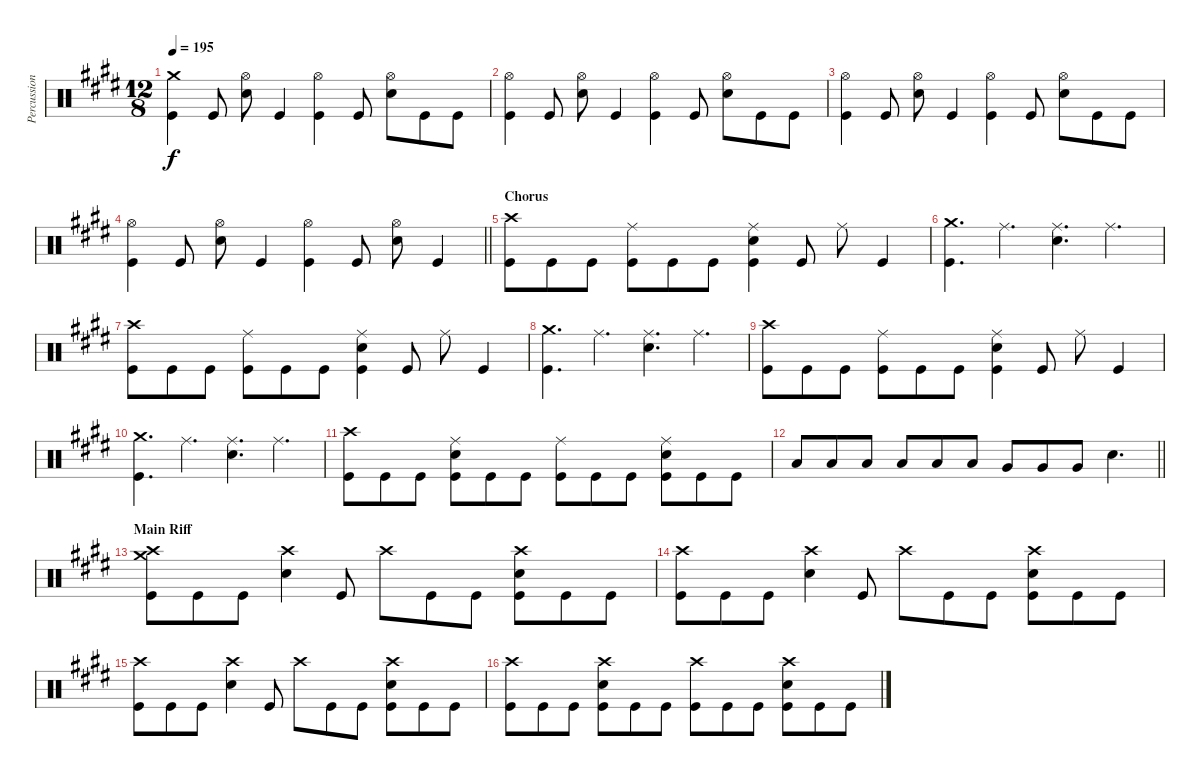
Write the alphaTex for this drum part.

\track ("Percussion" "Percussion") {instrument percussion}
\staff {score}
\articulation defaults
\ts (12 8)
\tempo 195
\clef neutral
\ks e
("Crash medium (hit)" "Kick (hit)").4{dy f} "Kick (hit)".8 ("Hi-Hat (open)" "Electric Snare (hit)").8 "Kick (hit)".4 ("Hi-Hat (open)" "Kick (hit)").4 "Kick (hit)".8 ("Hi-Hat (open)" "Electric Snare (hit)").8 "Kick (hit)".8 "Kick (hit)".8 |
("Hi-Hat (open)" "Kick (hit)").4 "Kick (hit)".8 ("Hi-Hat (open)" "Electric Snare (hit)").8 "Kick (hit)".4 ("Hi-Hat (open)" "Kick (hit)").4 "Kick (hit)".8 ("Hi-Hat (open)" "Electric Snare (hit)").8 "Kick (hit)".8 "Kick (hit)".8 |
("Hi-Hat (open)" "Kick (hit)").4 "Kick (hit)".8 ("Hi-Hat (open)" "Electric Snare (hit)").8 "Kick (hit)".4 ("Hi-Hat (open)" "Kick (hit)").4 "Kick (hit)".8 ("Hi-Hat (open)" "Electric Snare (hit)").8 "Kick (hit)".8 "Kick (hit)".8 |
\barLineRight lightlight
("Hi-Hat (open)" "Kick (hit)").4 "Kick (hit)".8 ("Hi-Hat (open)" "Electric Snare (hit)").8 "Kick (hit)".4 ("Hi-Hat (open)" "Kick (hit)").4 "Kick (hit)".8 ("Hi-Hat (open)" "Electric Snare (hit)").8 "Kick (hit)".4 |
\section ("" "Chorus")
("Crash high (hit)" "Kick (hit)").8 "Kick (hit)".8 "Kick (hit)".8 ("Ride (middle)" "Kick (hit)").8 "Kick (hit)".8 "Kick (hit)".8 ("Ride (middle)" "Electric Snare (hit)" "Kick (hit)").4 "Kick (hit)".8 "Ride (middle)".8 "Kick (hit)".4 |
("Crash medium (hit)" "Kick (hit)").4{d} "Ride (middle)".4{d} ("Ride (middle)" "Electric Snare (hit)").4{d} "Ride (middle)".4{d} |
("Crash high (hit)" "Kick (hit)").8 "Kick (hit)".8 "Kick (hit)".8 ("Ride (middle)" "Kick (hit)").8 "Kick (hit)".8 "Kick (hit)".8 ("Ride (middle)" "Electric Snare (hit)" "Kick (hit)").4 "Kick (hit)".8 "Ride (middle)".8 "Kick (hit)".4 |
("Crash medium (hit)" "Kick (hit)").4{d} "Ride (middle)".4{d} ("Ride (middle)" "Electric Snare (hit)").4{d} "Ride (middle)".4{d} |
("Crash high (hit)" "Kick (hit)").8 "Kick (hit)".8 "Kick (hit)".8 ("Ride (middle)" "Kick (hit)").8 "Kick (hit)".8 "Kick (hit)".8 ("Ride (middle)" "Electric Snare (hit)" "Kick (hit)").4 "Kick (hit)".8 "Ride (middle)".8 "Kick (hit)".4 |
("Crash medium (hit)" "Kick (hit)").4{d} "Ride (middle)".4{d} ("Ride (middle)" "Electric Snare (hit)").4{d} "Ride (middle)".4{d} |
("Crash high (hit)" "Kick (hit)").8 "Kick (hit)".8 "Kick (hit)".8 ("Ride (middle)" "Electric Snare (hit)" "Kick (hit)").8 "Kick (hit)".8 "Kick (hit)".8 ("Ride (middle)" "Kick (hit)").8 "Kick (hit)".8 "Kick (hit)".8 ("Ride (middle)" "Electric Snare (hit)" "Kick (hit)").8 "Kick (hit)".8 "Kick (hit)".8 |
\barLineRight lightlight "Low Tom (hit)".8 "Low Tom (hit)".8 "Low Tom (hit)".8 "Low Tom (hit)".8 "Low Tom (hit)".8 "Low Tom (hit)".8 "Very Low Tom (hit)".8 "Very Low Tom (hit)".8 "Very Low Tom (hit)".8 "Electric Snare (hit)".4{d}
|
\section ("" "Main Riff")
("Crash high (hit)" "Crash medium (hit)" "Kick (hit)").8 "Kick (hit)".8 "Kick (hit)".8 ("Crash high (hit)" "Electric Snare (hit)").4 "Kick (hit)".8 "Crash high (hit)".8 "Kick (hit)".8 "Kick (hit)".8 ("Crash high (hit)" "Electric Snare (hit)" "Kick (hit)").8 "Kick (hit)".8 "Kick (hit)".8 |
("Crash high (hit)" "Kick (hit)").8 "Kick (hit)".8 "Kick (hit)".8 ("Crash high (hit)" "Electric Snare (hit)").4 "Kick (hit)".8 "Crash high (hit)".8 "Kick (hit)".8 "Kick (hit)".8 ("Crash high (hit)" "Electric Snare (hit)" "Kick (hit)").8 "Kick (hit)".8 "Kick (hit)".8 |
("Crash high (hit)" "Kick (hit)").8 "Kick (hit)".8 "Kick (hit)".8 ("Crash high (hit)" "Electric Snare (hit)").4 "Kick (hit)".8 "Crash high (hit)".8 "Kick (hit)".8 "Kick (hit)".8 ("Crash high (hit)" "Electric Snare (hit)" "Kick (hit)").8 "Kick (hit)".8 "Kick (hit)".8 |
("Crash high (hit)" "Kick (hit)").8 "Kick (hit)".8 "Kick (hit)".8 ("Crash high (hit)" "Electric Snare (hit)" "Kick (hit)").8 "Kick (hit)".8 "Kick (hit)".8 ("Crash high (hit)" "Kick (hit)").8 "Kick (hit)".8 "Kick (hit)".8 ("Crash high (hit)" "Electric Snare (hit)" "Kick (hit)").8 "Kick (hit)".8 "Kick (hit)".8
